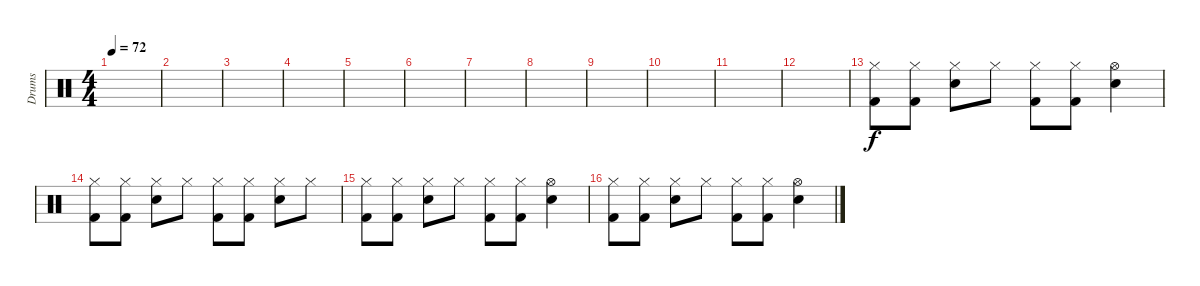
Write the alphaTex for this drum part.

\track ("Drums" "Drums") {instrument percussion}
\staff {score}
\articulation defaults
\ts (4 4)
\tempo 72
\clef neutral
\ks c
|
|
|
|
|
|
|
|
|
|
|
|
("Hi-Hat (closed)" "Kick (hit) 2").8 ("Hi-Hat (closed)" "Kick (hit) 2").8 ("Hi-Hat (closed)" "Electric Snare (hit)").8 "Hi-Hat (closed)".8 ("Hi-Hat (closed)" "Kick (hit) 2").8 ("Hi-Hat (closed)" "Kick (hit) 2").8 ("Hi-Hat (open)" "Electric Snare (hit)").4 |
("Hi-Hat (closed)" "Kick (hit) 2").8 ("Hi-Hat (closed)" "Kick (hit) 2").8 ("Hi-Hat (closed)" "Electric Snare (hit)").8 "Hi-Hat (closed)".8 ("Hi-Hat (closed)" "Kick (hit) 2").8 ("Hi-Hat (closed)" "Kick (hit) 2").8 ("Hi-Hat (closed)" "Electric Snare (hit)").8 "Hi-Hat (closed)".8 |
("Hi-Hat (closed)" "Kick (hit) 2").8 ("Hi-Hat (closed)" "Kick (hit) 2").8 ("Hi-Hat (closed)" "Electric Snare (hit)").8 "Hi-Hat (closed)".8 ("Hi-Hat (closed)" "Kick (hit) 2").8 ("Hi-Hat (closed)" "Kick (hit) 2").8 ("Hi-Hat (open)" "Electric Snare (hit)").4 |
("Hi-Hat (closed)" "Kick (hit) 2").8 ("Hi-Hat (closed)" "Kick (hit) 2").8 ("Hi-Hat (closed)" "Electric Snare (hit)").8 "Hi-Hat (closed)".8 ("Hi-Hat (closed)" "Kick (hit) 2").8 ("Hi-Hat (closed)" "Kick (hit) 2").8 ("Hi-Hat (open)" "Electric Snare (hit)").4
